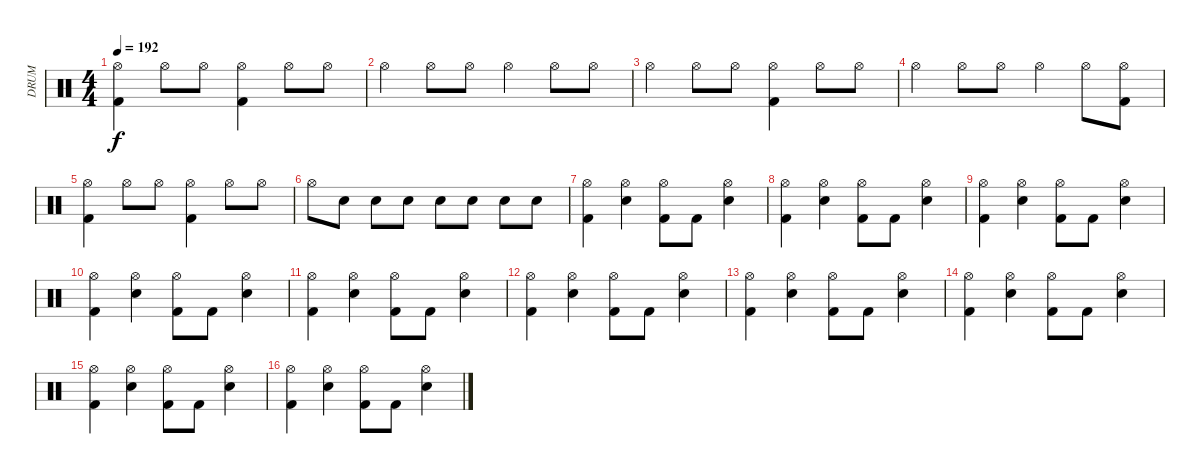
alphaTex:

\track ("     DRUM" "     DRUM") {instrument percussion}
\staff {score}
\articulation defaults
\ts (4 4)
\tempo 192
\clef neutral
\ks c
("Kick (hit) 2" "Hi-Hat (open)").4{dy f} "Hi-Hat (open)".8 "Hi-Hat (open)".8 ("Kick (hit) 2" "Hi-Hat (open)").4 "Hi-Hat (open)".8 "Hi-Hat (open)".8 |
"Hi-Hat (open)".4 "Hi-Hat (open)".8 "Hi-Hat (open)".8 "Hi-Hat (open)".4 "Hi-Hat (open)".8 "Hi-Hat (open)".8 |
"Hi-Hat (open)".4 "Hi-Hat (open)".8 "Hi-Hat (open)".8 ("Kick (hit) 2" "Hi-Hat (open)").4 "Hi-Hat (open)".8 "Hi-Hat (open)".8 |
"Hi-Hat (open)".4 "Hi-Hat (open)".8 "Hi-Hat (open)".8 "Hi-Hat (open)".4 "Hi-Hat (open)".8 ("Kick (hit) 2" "Hi-Hat (open)").8 |
("Kick (hit) 2" "Hi-Hat (open)").4 "Hi-Hat (open)".8 "Hi-Hat (open)".8 ("Kick (hit) 2" "Hi-Hat (open)").4 "Hi-Hat (open)".8 "Hi-Hat (open)".8 |
"Hi-Hat (open)".8 "Snare (hit) 2".8 "Snare (hit) 2".8 "Snare (hit) 2".8 "Snare (hit) 2".8 "Snare (hit) 2".8 "Snare (hit) 2".8 "Snare (hit) 2".8 |
("Hi-Hat (open)" "Kick (hit) 2").4 ("Hi-Hat (open)" "Electric Snare (hit)").4 ("Hi-Hat (open)" "Kick (hit) 2").8 "Kick (hit) 2".8 ("Hi-Hat (open)" "Electric Snare (hit)").4 |
("Hi-Hat (open)" "Kick (hit) 2").4 ("Hi-Hat (open)" "Electric Snare (hit)").4 ("Hi-Hat (open)" "Kick (hit) 2").8 "Kick (hit) 2".8 ("Hi-Hat (open)" "Electric Snare (hit)").4 |
("Hi-Hat (open)" "Kick (hit) 2").4 ("Hi-Hat (open)" "Electric Snare (hit)").4 ("Hi-Hat (open)" "Kick (hit) 2").8 "Kick (hit) 2".8 ("Hi-Hat (open)" "Electric Snare (hit)").4 |
("Hi-Hat (open)" "Kick (hit) 2").4 ("Hi-Hat (open)" "Electric Snare (hit)").4 ("Hi-Hat (open)" "Kick (hit) 2").8 "Kick (hit) 2".8 ("Hi-Hat (open)" "Electric Snare (hit)").4 |
("Hi-Hat (open)" "Kick (hit) 2").4 ("Hi-Hat (open)" "Electric Snare (hit)").4 ("Hi-Hat (open)" "Kick (hit) 2").8 "Kick (hit) 2".8 ("Hi-Hat (open)" "Electric Snare (hit)").4 |
("Hi-Hat (open)" "Kick (hit) 2").4 ("Hi-Hat (open)" "Electric Snare (hit)").4 ("Hi-Hat (open)" "Kick (hit) 2").8 "Kick (hit) 2".8 ("Hi-Hat (open)" "Electric Snare (hit)").4 |
("Hi-Hat (open)" "Kick (hit) 2").4 ("Hi-Hat (open)" "Electric Snare (hit)").4 ("Hi-Hat (open)" "Kick (hit) 2").8 "Kick (hit) 2".8 ("Hi-Hat (open)" "Electric Snare (hit)").4 |
("Hi-Hat (open)" "Kick (hit) 2").4 ("Hi-Hat (open)" "Electric Snare (hit)").4 ("Hi-Hat (open)" "Kick (hit) 2").8 "Kick (hit) 2".8 ("Hi-Hat (open)" "Electric Snare (hit)").4 |
("Hi-Hat (open)" "Kick (hit) 2").4 ("Hi-Hat (open)" "Electric Snare (hit)").4 ("Hi-Hat (open)" "Kick (hit) 2").8 "Kick (hit) 2".8 ("Hi-Hat (open)" "Electric Snare (hit)").4 |
("Hi-Hat (open)" "Kick (hit) 2").4 ("Hi-Hat (open)" "Electric Snare (hit)").4 ("Hi-Hat (open)" "Kick (hit) 2").8 "Kick (hit) 2".8 ("Hi-Hat (open)" "Electric Snare (hit)").4
